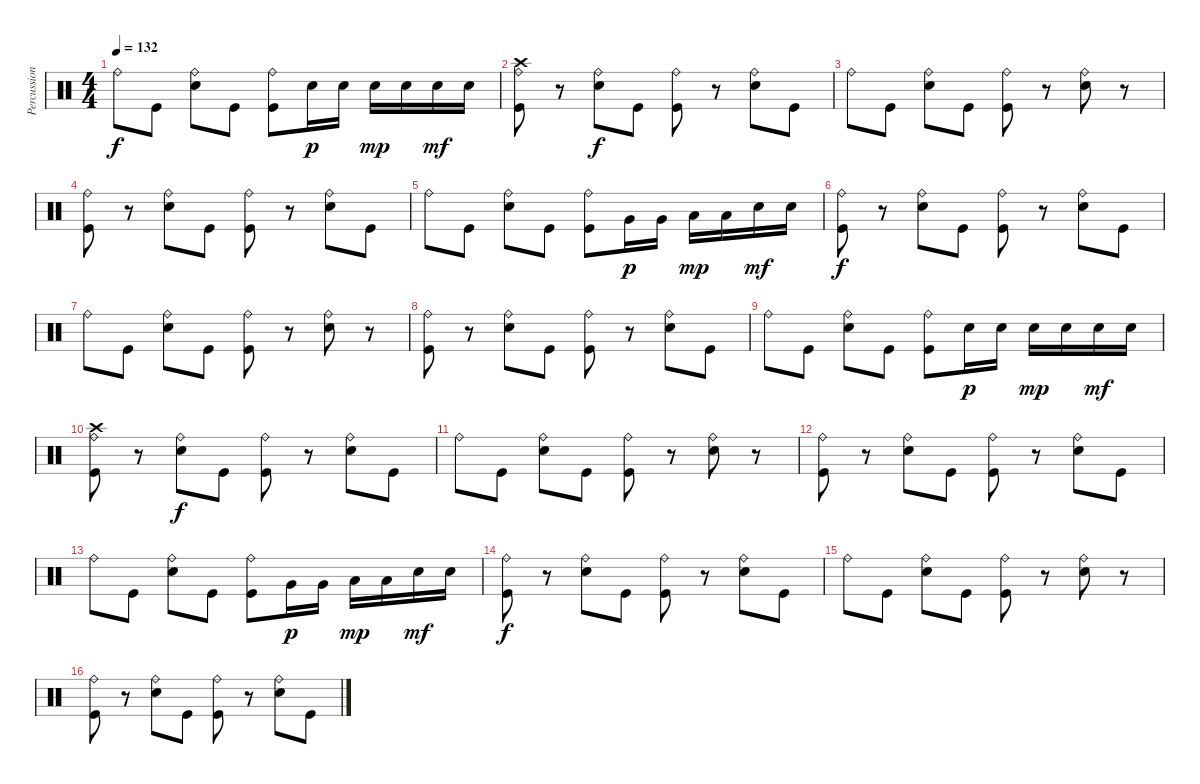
\track ("Percussion" "Percussion") {instrument percussion}
\staff {score}
\articulation defaults
\ts (4 4)
\tempo 132
\clef neutral
\ks c "Ride (bell)".8{dy f} "Kick (hit)".8
("Ride (bell)" "Snare (hit) 2").8 "Kick (hit)".8 ("Ride (bell)" "Kick (hit)").8 "Snare (hit) 2".16{dy p} "Snare (hit) 2".16 "Snare (hit) 2".16{dy mp} "Snare (hit) 2".16 "Snare (hit) 2".16{dy mf} "Snare (hit) 2".16 |
("Crash high (hit)" "Ride (bell)" "Kick (hit)").8 r.8 ("Ride (bell)" "Snare (hit) 2").8{dy f} "Kick (hit)".8 ("Ride (bell)" "Kick (hit)").8 r.8 ("Ride (bell)" "Snare (hit) 2").8 "Kick (hit)".8 |
"Ride (bell)".8 "Kick (hit)".8 ("Ride (bell)" "Snare (hit) 2").8 "Kick (hit)".8 ("Ride (bell)" "Kick (hit)").8 r.8 ("Ride (bell)" "Snare (hit) 2").8 r.8 |
("Ride (bell)" "Kick (hit)").8 r.8 ("Ride (bell)" "Snare (hit) 2").8 "Kick (hit)".8 ("Ride (bell)" "Kick (hit)").8 r.8 ("Ride (bell)" "Snare (hit) 2").8 "Kick (hit)".8 |
"Ride (bell)".8 "Kick (hit)".8 ("Ride (bell)" "Snare (hit) 2").8 "Kick (hit)".8 ("Ride (bell)" "Kick (hit)").8 "Very Low Tom (hit)".16{dy p} "Very Low Tom (hit)".16 "Low Floor Tom (hit)".16{dy mp} "Low Floor Tom (hit)".16 "Snare (hit) 2".16{dy mf} "Snare (hit) 2".16 |
("Ride (bell)" "Kick (hit)").8{dy f} r.8 ("Ride (bell)" "Snare (hit) 2").8 "Kick (hit)".8 ("Ride (bell)" "Kick (hit)").8 r.8 ("Ride (bell)" "Snare (hit) 2").8 "Kick (hit)".8 |
"Ride (bell)".8 "Kick (hit)".8 ("Ride (bell)" "Snare (hit) 2").8 "Kick (hit)".8 ("Ride (bell)" "Kick (hit)").8 r.8 ("Ride (bell)" "Snare (hit) 2").8 r.8 |
("Ride (bell)" "Kick (hit)").8 r.8 ("Ride (bell)" "Snare (hit) 2").8 "Kick (hit)".8 ("Ride (bell)" "Kick (hit)").8 r.8 ("Ride (bell)" "Snare (hit) 2").8 "Kick (hit)".8 |
"Ride (bell)".8 "Kick (hit)".8 ("Ride (bell)" "Snare (hit) 2").8 "Kick (hit)".8 ("Ride (bell)" "Kick (hit)").8 "Snare (hit) 2".16{dy p} "Snare (hit) 2".16 "Snare (hit) 2".16{dy mp} "Snare (hit) 2".16 "Snare (hit) 2".16{dy mf} "Snare (hit) 2".16 |
("Crash high (hit)" "Ride (bell)" "Kick (hit)").8 r.8 ("Ride (bell)" "Snare (hit) 2").8{dy f} "Kick (hit)".8 ("Ride (bell)" "Kick (hit)").8 r.8 ("Ride (bell)" "Snare (hit) 2").8 "Kick (hit)".8 |
"Ride (bell)".8 "Kick (hit)".8 ("Ride (bell)" "Snare (hit) 2").8 "Kick (hit)".8 ("Ride (bell)" "Kick (hit)").8 r.8 ("Ride (bell)" "Snare (hit) 2").8 r.8 |
("Ride (bell)" "Kick (hit)").8 r.8 ("Ride (bell)" "Snare (hit) 2").8 "Kick (hit)".8 ("Ride (bell)" "Kick (hit)").8 r.8 ("Ride (bell)" "Snare (hit) 2").8 "Kick (hit)".8 |
"Ride (bell)".8 "Kick (hit)".8 ("Ride (bell)" "Snare (hit) 2").8 "Kick (hit)".8 ("Ride (bell)" "Kick (hit)").8 "Very Low Tom (hit)".16{dy p} "Very Low Tom (hit)".16 "Low Floor Tom (hit)".16{dy mp} "Low Floor Tom (hit)".16 "Snare (hit) 2".16{dy mf} "Snare (hit) 2".16 |
("Ride (bell)" "Kick (hit)").8{dy f} r.8 ("Ride (bell)" "Snare (hit) 2").8 "Kick (hit)".8 ("Ride (bell)" "Kick (hit)").8 r.8 ("Ride (bell)" "Snare (hit) 2").8 "Kick (hit)".8 |
"Ride (bell)".8 "Kick (hit)".8 ("Ride (bell)" "Snare (hit) 2").8 "Kick (hit)".8 ("Ride (bell)" "Kick (hit)").8 r.8 ("Ride (bell)" "Snare (hit) 2").8 r.8 |
("Ride (bell)" "Kick (hit)").8 r.8 ("Ride (bell)" "Snare (hit) 2").8 "Kick (hit)".8 ("Ride (bell)" "Kick (hit)").8 r.8 ("Ride (bell)" "Snare (hit) 2").8 "Kick (hit)".8
